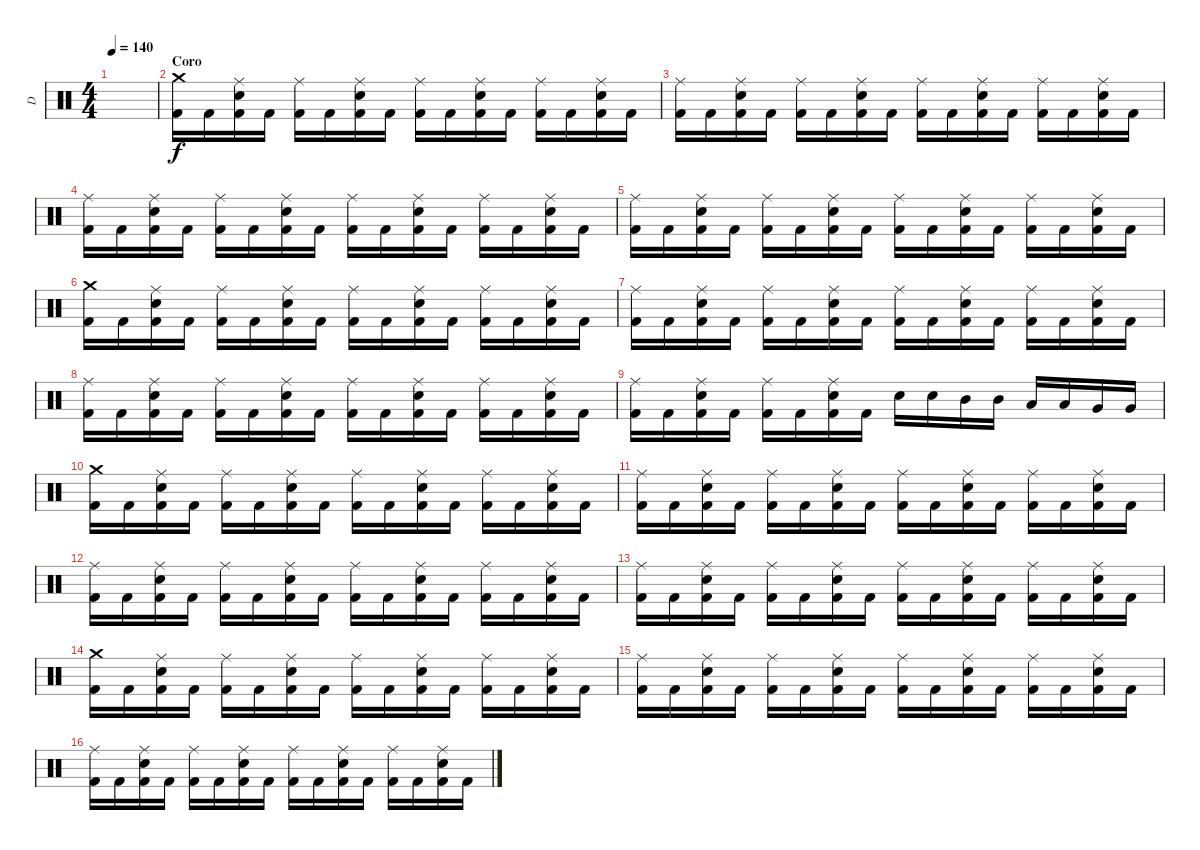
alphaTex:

\track ("D" "D") {instrument percussion}
\staff {score}
\articulation defaults
\ts (4 4)
\tempo 140
\clef neutral
\ks c
|
\section ("" "Coro")
("Crash medium (hit)" "Kick (hit) 2").16 "Kick (hit) 2".16 ("Ride (middle)" "Electric Snare (hit)" "Kick (hit) 2").16 "Kick (hit) 2".16 ("Ride (middle)" "Kick (hit) 2").16 "Kick (hit) 2".16 ("Ride (middle)" "Electric Snare (hit)" "Kick (hit) 2").16 "Kick (hit) 2".16 ("Ride (middle)" "Kick (hit) 2").16 "Kick (hit) 2".16 ("Ride (middle)" "Electric Snare (hit)" "Kick (hit) 2").16 "Kick (hit) 2".16 ("Ride (middle)" "Kick (hit) 2").16 "Kick (hit) 2".16 ("Ride (middle)" "Electric Snare (hit)" "Kick (hit) 2").16 "Kick (hit) 2".16 |
("Ride (middle)" "Kick (hit) 2").16 "Kick (hit) 2".16 ("Ride (middle)" "Electric Snare (hit)" "Kick (hit) 2").16 "Kick (hit) 2".16 ("Ride (middle)" "Kick (hit) 2").16 "Kick (hit) 2".16 ("Ride (middle)" "Electric Snare (hit)" "Kick (hit) 2").16 "Kick (hit) 2".16 ("Ride (middle)" "Kick (hit) 2").16 "Kick (hit) 2".16 ("Ride (middle)" "Electric Snare (hit)" "Kick (hit) 2").16 "Kick (hit) 2".16 ("Ride (middle)" "Kick (hit) 2").16 "Kick (hit) 2".16 ("Ride (middle)" "Electric Snare (hit)" "Kick (hit) 2").16 "Kick (hit) 2".16 |
("Ride (middle)" "Kick (hit) 2").16 "Kick (hit) 2".16 ("Ride (middle)" "Electric Snare (hit)" "Kick (hit) 2").16 "Kick (hit) 2".16 ("Ride (middle)" "Kick (hit) 2").16 "Kick (hit) 2".16 ("Ride (middle)" "Electric Snare (hit)" "Kick (hit) 2").16 "Kick (hit) 2".16 ("Ride (middle)" "Kick (hit) 2").16 "Kick (hit) 2".16 ("Ride (middle)" "Electric Snare (hit)" "Kick (hit) 2").16 "Kick (hit) 2".16 ("Ride (middle)" "Kick (hit) 2").16 "Kick (hit) 2".16 ("Ride (middle)" "Electric Snare (hit)" "Kick (hit) 2").16 "Kick (hit) 2".16 |
("Ride (middle)" "Kick (hit) 2").16 "Kick (hit) 2".16 ("Ride (middle)" "Electric Snare (hit)" "Kick (hit) 2").16 "Kick (hit) 2".16 ("Ride (middle)" "Kick (hit) 2").16 "Kick (hit) 2".16 ("Ride (middle)" "Electric Snare (hit)" "Kick (hit) 2").16 "Kick (hit) 2".16 ("Ride (middle)" "Kick (hit) 2").16 "Kick (hit) 2".16 ("Ride (middle)" "Electric Snare (hit)" "Kick (hit) 2").16 "Kick (hit) 2".16 ("Ride (middle)" "Kick (hit) 2").16 "Kick (hit) 2".16 ("Ride (middle)" "Electric Snare (hit)" "Kick (hit) 2").16 "Kick (hit) 2".16 |
("Crash medium (hit)" "Kick (hit) 2").16 "Kick (hit) 2".16 ("Ride (middle)" "Electric Snare (hit)" "Kick (hit) 2").16 "Kick (hit) 2".16 ("Ride (middle)" "Kick (hit) 2").16 "Kick (hit) 2".16 ("Ride (middle)" "Electric Snare (hit)" "Kick (hit) 2").16 "Kick (hit) 2".16 ("Ride (middle)" "Kick (hit) 2").16 "Kick (hit) 2".16 ("Ride (middle)" "Electric Snare (hit)" "Kick (hit) 2").16 "Kick (hit) 2".16 ("Ride (middle)" "Kick (hit) 2").16 "Kick (hit) 2".16 ("Ride (middle)" "Electric Snare (hit)" "Kick (hit) 2").16 "Kick (hit) 2".16 |
("Ride (middle)" "Kick (hit) 2").16 "Kick (hit) 2".16 ("Ride (middle)" "Electric Snare (hit)" "Kick (hit) 2").16 "Kick (hit) 2".16 ("Ride (middle)" "Kick (hit) 2").16 "Kick (hit) 2".16 ("Ride (middle)" "Electric Snare (hit)" "Kick (hit) 2").16 "Kick (hit) 2".16 ("Ride (middle)" "Kick (hit) 2").16 "Kick (hit) 2".16 ("Ride (middle)" "Electric Snare (hit)" "Kick (hit) 2").16 "Kick (hit) 2".16 ("Ride (middle)" "Kick (hit) 2").16 "Kick (hit) 2".16 ("Ride (middle)" "Electric Snare (hit)" "Kick (hit) 2").16 "Kick (hit) 2".16 |
("Ride (middle)" "Kick (hit) 2").16 "Kick (hit) 2".16 ("Ride (middle)" "Electric Snare (hit)" "Kick (hit) 2").16 "Kick (hit) 2".16 ("Ride (middle)" "Kick (hit) 2").16 "Kick (hit) 2".16 ("Ride (middle)" "Electric Snare (hit)" "Kick (hit) 2").16 "Kick (hit) 2".16 ("Ride (middle)" "Kick (hit) 2").16 "Kick (hit) 2".16 ("Ride (middle)" "Electric Snare (hit)" "Kick (hit) 2").16 "Kick (hit) 2".16 ("Ride (middle)" "Kick (hit) 2").16 "Kick (hit) 2".16 ("Ride (middle)" "Electric Snare (hit)" "Kick (hit) 2").16 "Kick (hit) 2".16 |
("Ride (middle)" "Kick (hit) 2").16 "Kick (hit) 2".16 ("Ride (middle)" "Electric Snare (hit)" "Kick (hit) 2").16 "Kick (hit) 2".16 ("Ride (middle)" "Kick (hit) 2").16 "Kick (hit) 2".16 ("Ride (middle)" "Electric Snare (hit)" "Kick (hit) 2").16 "Kick (hit) 2".16 "Electric Snare (hit)".16 "Electric Snare (hit)".16 "Mid Tom (hit)".16 "Mid Tom (hit)".16 "Low Tom (hit)".16 "Low Tom (hit)".16 "Very Low Tom (hit)".16 "Very Low Tom (hit)".16 |
("Crash medium (hit)" "Kick (hit) 2").16 "Kick (hit) 2".16 ("Ride (middle)" "Electric Snare (hit)" "Kick (hit) 2").16 "Kick (hit) 2".16 ("Ride (middle)" "Kick (hit) 2").16 "Kick (hit) 2".16 ("Ride (middle)" "Electric Snare (hit)" "Kick (hit) 2").16 "Kick (hit) 2".16 ("Ride (middle)" "Kick (hit) 2").16 "Kick (hit) 2".16 ("Ride (middle)" "Electric Snare (hit)" "Kick (hit) 2").16 "Kick (hit) 2".16 ("Ride (middle)" "Kick (hit) 2").16 "Kick (hit) 2".16 ("Ride (middle)" "Electric Snare (hit)" "Kick (hit) 2").16 "Kick (hit) 2".16 |
("Ride (middle)" "Kick (hit) 2").16 "Kick (hit) 2".16 ("Ride (middle)" "Electric Snare (hit)" "Kick (hit) 2").16 "Kick (hit) 2".16 ("Ride (middle)" "Kick (hit) 2").16 "Kick (hit) 2".16 ("Ride (middle)" "Electric Snare (hit)" "Kick (hit) 2").16 "Kick (hit) 2".16 ("Ride (middle)" "Kick (hit) 2").16 "Kick (hit) 2".16 ("Ride (middle)" "Electric Snare (hit)" "Kick (hit) 2").16 "Kick (hit) 2".16 ("Ride (middle)" "Kick (hit) 2").16 "Kick (hit) 2".16 ("Ride (middle)" "Electric Snare (hit)" "Kick (hit) 2").16 "Kick (hit) 2".16 |
("Ride (middle)" "Kick (hit) 2").16 "Kick (hit) 2".16 ("Ride (middle)" "Electric Snare (hit)" "Kick (hit) 2").16 "Kick (hit) 2".16 ("Ride (middle)" "Kick (hit) 2").16 "Kick (hit) 2".16 ("Ride (middle)" "Electric Snare (hit)" "Kick (hit) 2").16 "Kick (hit) 2".16 ("Ride (middle)" "Kick (hit) 2").16 "Kick (hit) 2".16 ("Ride (middle)" "Electric Snare (hit)" "Kick (hit) 2").16 "Kick (hit) 2".16 ("Ride (middle)" "Kick (hit) 2").16 "Kick (hit) 2".16 ("Ride (middle)" "Electric Snare (hit)" "Kick (hit) 2").16 "Kick (hit) 2".16 |
("Ride (middle)" "Kick (hit) 2").16 "Kick (hit) 2".16 ("Ride (middle)" "Electric Snare (hit)" "Kick (hit) 2").16 "Kick (hit) 2".16 ("Ride (middle)" "Kick (hit) 2").16 "Kick (hit) 2".16 ("Ride (middle)" "Electric Snare (hit)" "Kick (hit) 2").16 "Kick (hit) 2".16 ("Ride (middle)" "Kick (hit) 2").16 "Kick (hit) 2".16 ("Ride (middle)" "Electric Snare (hit)" "Kick (hit) 2").16 "Kick (hit) 2".16 ("Ride (middle)" "Kick (hit) 2").16 "Kick (hit) 2".16 ("Ride (middle)" "Electric Snare (hit)" "Kick (hit) 2").16 "Kick (hit) 2".16 |
("Crash medium (hit)" "Kick (hit) 2").16 "Kick (hit) 2".16 ("Ride (middle)" "Electric Snare (hit)" "Kick (hit) 2").16 "Kick (hit) 2".16 ("Ride (middle)" "Kick (hit) 2").16 "Kick (hit) 2".16 ("Ride (middle)" "Electric Snare (hit)" "Kick (hit) 2").16 "Kick (hit) 2".16 ("Ride (middle)" "Kick (hit) 2").16 "Kick (hit) 2".16 ("Ride (middle)" "Electric Snare (hit)" "Kick (hit) 2").16 "Kick (hit) 2".16 ("Ride (middle)" "Kick (hit) 2").16 "Kick (hit) 2".16 ("Ride (middle)" "Electric Snare (hit)" "Kick (hit) 2").16 "Kick (hit) 2".16 |
("Ride (middle)" "Kick (hit) 2").16 "Kick (hit) 2".16 ("Ride (middle)" "Electric Snare (hit)" "Kick (hit) 2").16 "Kick (hit) 2".16 ("Ride (middle)" "Kick (hit) 2").16 "Kick (hit) 2".16 ("Ride (middle)" "Electric Snare (hit)" "Kick (hit) 2").16 "Kick (hit) 2".16 ("Ride (middle)" "Kick (hit) 2").16 "Kick (hit) 2".16 ("Ride (middle)" "Electric Snare (hit)" "Kick (hit) 2").16 "Kick (hit) 2".16 ("Ride (middle)" "Kick (hit) 2").16 "Kick (hit) 2".16 ("Ride (middle)" "Electric Snare (hit)" "Kick (hit) 2").16 "Kick (hit) 2".16 |
("Ride (middle)" "Kick (hit) 2").16 "Kick (hit) 2".16 ("Ride (middle)" "Electric Snare (hit)" "Kick (hit) 2").16 "Kick (hit) 2".16 ("Ride (middle)" "Kick (hit) 2").16 "Kick (hit) 2".16 ("Ride (middle)" "Electric Snare (hit)" "Kick (hit) 2").16 "Kick (hit) 2".16 ("Ride (middle)" "Kick (hit) 2").16 "Kick (hit) 2".16 ("Ride (middle)" "Electric Snare (hit)" "Kick (hit) 2").16 "Kick (hit) 2".16 ("Ride (middle)" "Kick (hit) 2").16 "Kick (hit) 2".16 ("Ride (middle)" "Electric Snare (hit)" "Kick (hit) 2").16 "Kick (hit) 2".16
